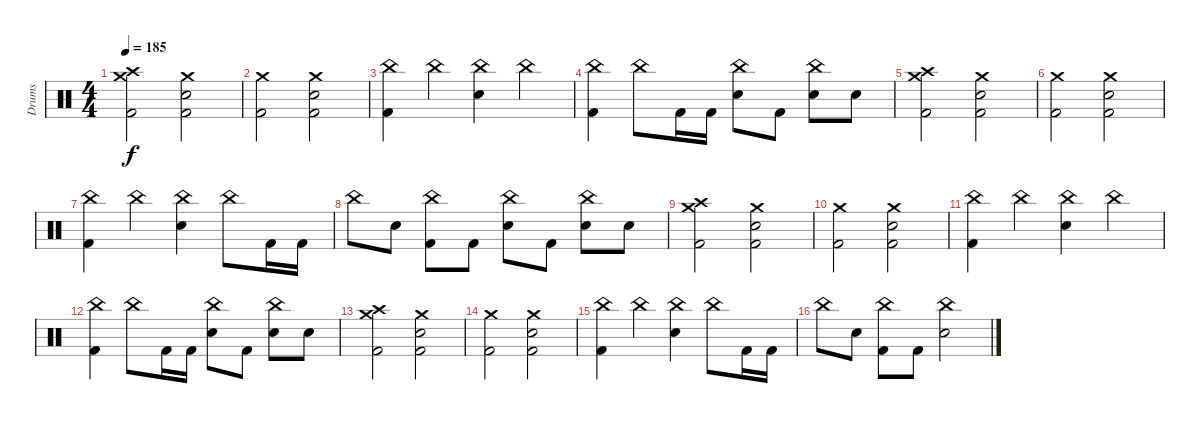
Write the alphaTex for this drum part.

\track ("Drums" "Drums") {instrument percussion}
\staff {score}
\articulation defaults
\ts (4 4)
\tempo 185
\clef neutral
\ks c
("Crash high (hit)" "Crash medium (hit)" "Kick (hit) 2").2{dy f} ("Crash medium (hit)" "Electric Snare (hit)" "Kick (hit) 2").2 |
("Crash medium (hit)" "Kick (hit) 2").2 ("Crash medium (hit)" "Electric Snare (hit)" "Kick (hit) 2").2 |
("China (hit)" "Kick (hit) 2").4 "China (hit)".4 ("China (hit)" "Electric Snare (hit)").4 "China (hit)".4 |
("China (hit)" "Kick (hit) 2").4 "China (hit)".8 "Kick (hit) 2".16 "Kick (hit) 2".16 ("China (hit)" "Electric Snare (hit)").8 "Kick (hit) 2".8 ("China (hit)" "Electric Snare (hit)").8 "Electric Snare (hit)".8 |
("Crash high (hit)" "Crash medium (hit)" "Kick (hit) 2").2 ("Crash medium (hit)" "Electric Snare (hit)" "Kick (hit) 2").2 |
("Crash medium (hit)" "Kick (hit) 2").2 ("Crash medium (hit)" "Electric Snare (hit)" "Kick (hit) 2").2 |
("China (hit)" "Kick (hit) 2").4 "China (hit)".4 ("China (hit)" "Electric Snare (hit)").4 "China (hit)".8 "Kick (hit) 2".16 "Kick (hit) 2".16 |
"China (hit)".8 "Electric Snare (hit)".8 ("China (hit)" "Kick (hit) 2").8 "Kick (hit) 2".8 ("China (hit)" "Electric Snare (hit)").8 "Kick (hit) 2".8 ("China (hit)" "Electric Snare (hit)").8 "Electric Snare (hit)".8 |
("Crash high (hit)" "Crash medium (hit)" "Kick (hit) 2").2 ("Crash medium (hit)" "Electric Snare (hit)" "Kick (hit) 2").2 |
("Crash medium (hit)" "Kick (hit) 2").2 ("Crash medium (hit)" "Electric Snare (hit)" "Kick (hit) 2").2 |
("China (hit)" "Kick (hit) 2").4 "China (hit)".4 ("China (hit)" "Electric Snare (hit)").4 "China (hit)".4 |
("China (hit)" "Kick (hit) 2").4 "China (hit)".8 "Kick (hit) 2".16 "Kick (hit) 2".16 ("China (hit)" "Electric Snare (hit)").8 "Kick (hit) 2".8 ("China (hit)" "Electric Snare (hit)").8 "Electric Snare (hit)".8 |
("Crash high (hit)" "Crash medium (hit)" "Kick (hit) 2").2 ("Crash medium (hit)" "Electric Snare (hit)" "Kick (hit) 2").2 |
("Crash medium (hit)" "Kick (hit) 2").2 ("Crash medium (hit)" "Electric Snare (hit)" "Kick (hit) 2").2 |
("China (hit)" "Kick (hit) 2").4 "China (hit)".4 ("China (hit)" "Electric Snare (hit)").4 "China (hit)".8 "Kick (hit) 2".16 "Kick (hit) 2".16 |
"China (hit)".8 "Electric Snare (hit)".8 ("China (hit)" "Kick (hit) 2").8 "Kick (hit) 2".8 ("China (hit)" "Electric Snare (hit)").2
